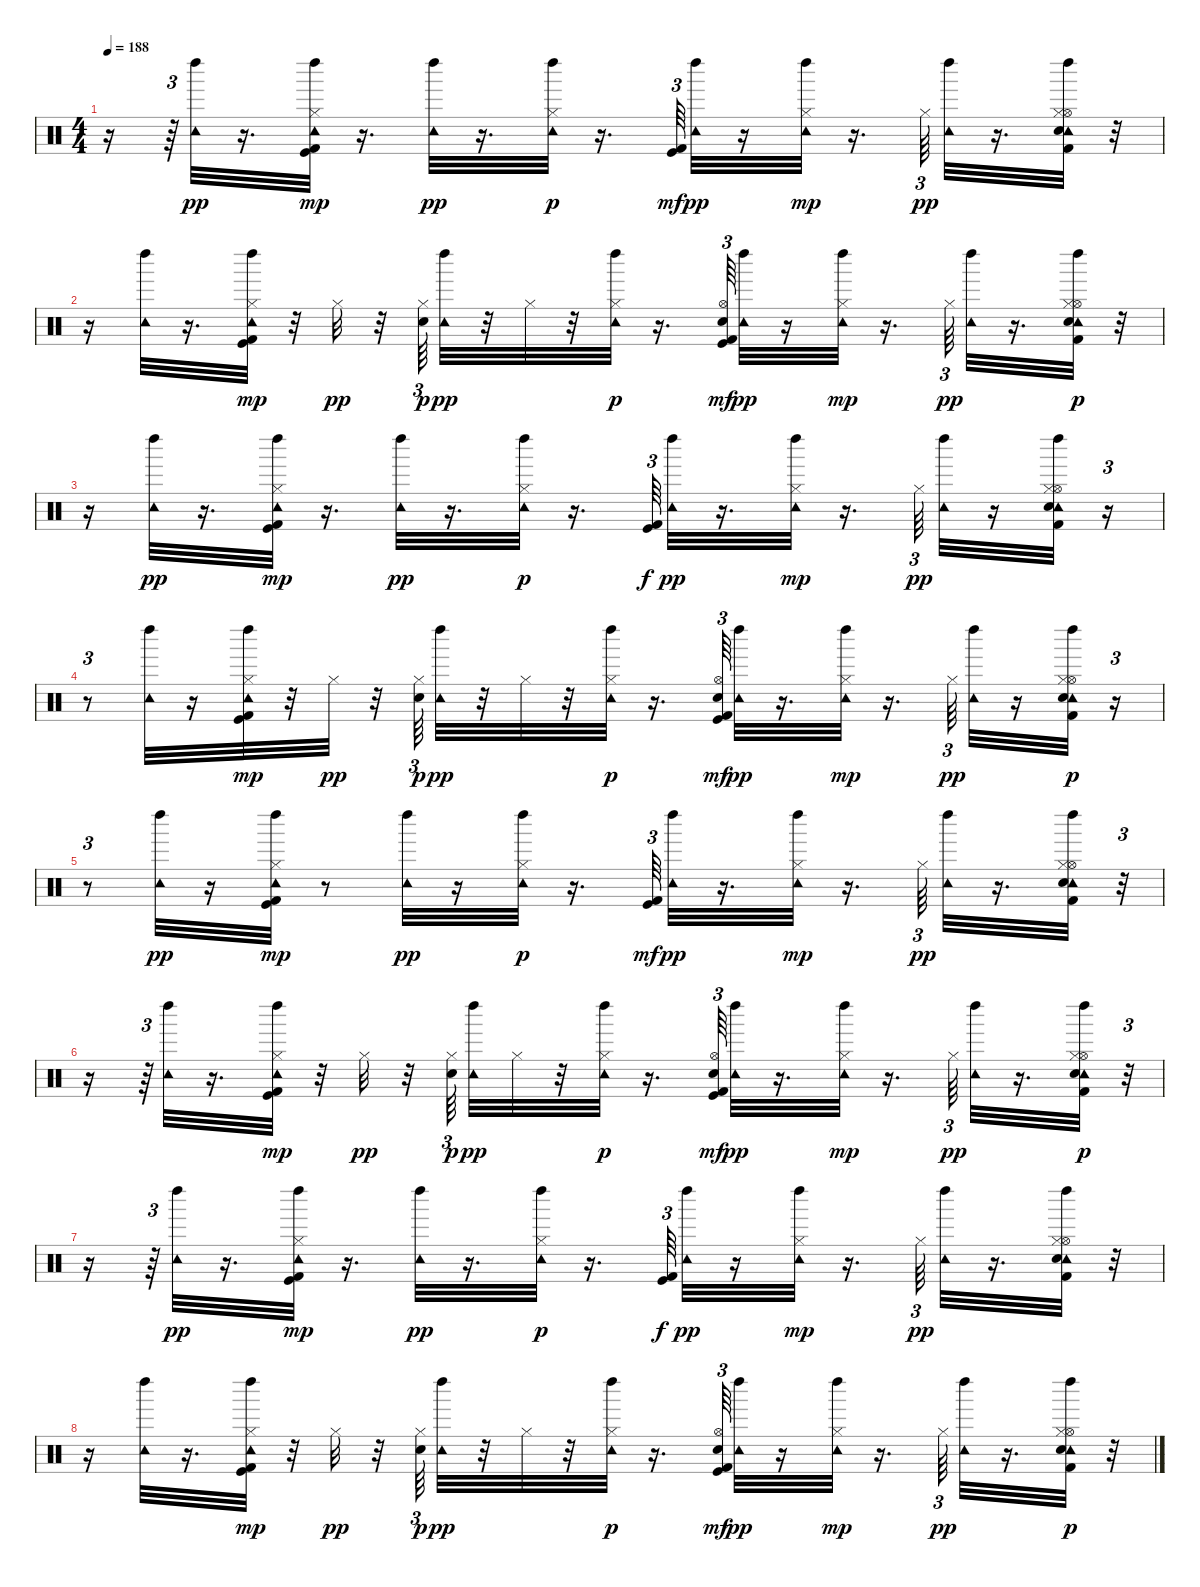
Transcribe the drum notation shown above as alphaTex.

\track "" {instrument percussion}
\staff {score}
\articulation defaults
\ts (4 4)
\tempo 188
\clef neutral
\ks c
r.16{dy p} r.64{tu (3 2)} ("Tambourine (hit)" "Left Maraca (hit)").32{dy pp} r.16{d} ("Kick (hit) 2" "Hi-Hat (closed)" "Tambourine (hit)" "Left Maraca (hit)" "Kick (hit)").32{dy mp} r.16{d} ("Tambourine (hit)" "Left Maraca (hit)").32{dy pp} r.16{d} ("Hi-Hat (closed)" "Tambourine (hit)" "Left Maraca (hit)").32{dy p} r.16{d} ("Kick (hit) 2" "Kick (hit)").64{tu (3 2) dy mf} ("Tambourine (hit)" "Left Maraca (hit)").32{dy pp} r.16 ("Hi-Hat (closed)" "Tambourine (hit)" "Left Maraca (hit)").32{dy mp} r.16{d} "Hi-Hat (closed)".64{tu (3 2) dy pp} ("Tambourine (hit)" "Left Maraca (hit)").32 r.16{d} ("Kick (hit) 2" "Hi-Hat (open)" "Tambourine (hit)" "Left Maraca (hit)" "Electric Snare (hit)" "Hi-Hat (closed)").32 r.32 |
r.16 ("Tambourine (hit)" "Left Maraca (hit)").32 r.16{d} ("Kick (hit) 2" "Hi-Hat (closed)" "Tambourine (hit)" "Left Maraca (hit)" "Kick (hit)").32{dy mp} r.32 "Hi-Hat (closed)".32{dy pp} r.32 ("Electric Snare (hit)" "Hi-Hat (closed)").64{tu (3 2) dy p} ("Tambourine (hit)" "Left Maraca (hit)").32{dy pp} r.32 "Hi-Hat (closed)".32 r.32 ("Hi-Hat (closed)" "Tambourine (hit)" "Left Maraca (hit)").32{dy p} r.16{d} ("Kick (hit) 2" "Hi-Hat (open)" "Electric Snare (hit)" "Kick (hit)").64{tu (3 2) dy mf} ("Tambourine (hit)" "Left Maraca (hit)").32{dy pp} r.16 ("Hi-Hat (closed)" "Tambourine (hit)" "Left Maraca (hit)").32{dy mp} r.16{d} "Hi-Hat (closed)".64{tu (3 2) dy pp} ("Tambourine (hit)" "Left Maraca (hit)").32 r.16{d} ("Kick (hit) 2" "Hi-Hat (open)" "Tambourine (hit)" "Left Maraca (hit)" "Electric Snare (hit)" "Hi-Hat (closed)").32{dy p} r.32 |
r.16 ("Tambourine (hit)" "Left Maraca (hit)").32{dy pp} r.16{d} ("Kick (hit) 2" "Hi-Hat (closed)" "Tambourine (hit)" "Left Maraca (hit)" "Kick (hit)").32{dy mp} r.16{d} ("Tambourine (hit)" "Left Maraca (hit)").32{dy pp} r.16{d} ("Hi-Hat (closed)" "Tambourine (hit)" "Left Maraca (hit)").32{dy p} r.16{d} ("Kick (hit) 2" "Kick (hit)").64{tu (3 2) dy f} ("Tambourine (hit)" "Left Maraca (hit)").32{dy pp} r.16{d} ("Hi-Hat (closed)" "Tambourine (hit)" "Left Maraca (hit)").32{dy mp} r.16{d} "Hi-Hat (closed)".64{tu (3 2) dy pp} ("Tambourine (hit)" "Left Maraca (hit)").32 r.16 ("Kick (hit) 2" "Hi-Hat (open)" "Tambourine (hit)" "Left Maraca (hit)" "Electric Snare (hit)" "Hi-Hat (closed)").32 r.16{tu (3 2)} |
r.8{tu (3 2)} ("Tambourine (hit)" "Left Maraca (hit)").32 r.16 ("Kick (hit) 2" "Hi-Hat (closed)" "Tambourine (hit)" "Left Maraca (hit)" "Kick (hit)").32{dy mp} r.32 "Hi-Hat (closed)".32{dy pp} r.32 ("Electric Snare (hit)" "Hi-Hat (closed)").64{tu (3 2) dy p} ("Tambourine (hit)" "Left Maraca (hit)").32{dy pp} r.32 "Hi-Hat (closed)".32 r.32 ("Hi-Hat (closed)" "Tambourine (hit)" "Left Maraca (hit)").32{dy p} r.16{d} ("Kick (hit) 2" "Hi-Hat (open)" "Electric Snare (hit)" "Kick (hit)").64{tu (3 2) dy mf} ("Tambourine (hit)" "Left Maraca (hit)").32{dy pp} r.16{d} ("Hi-Hat (closed)" "Tambourine (hit)" "Left Maraca (hit)").32{dy mp} r.16{d} "Hi-Hat (closed)".64{tu (3 2) dy pp} ("Tambourine (hit)" "Left Maraca (hit)").32 r.16 ("Kick (hit) 2" "Hi-Hat (open)" "Tambourine (hit)" "Left Maraca (hit)" "Electric Snare (hit)" "Hi-Hat (closed)").32{dy p} r.16{tu (3 2)} |
r.8{tu (3 2)} ("Tambourine (hit)" "Left Maraca (hit)").32{dy pp} r.16 ("Kick (hit) 2" "Hi-Hat (closed)" "Tambourine (hit)" "Left Maraca (hit)" "Kick (hit)").32{dy mp} r.8 ("Tambourine (hit)" "Left Maraca (hit)").32{dy pp} r.16 ("Hi-Hat (closed)" "Tambourine (hit)" "Left Maraca (hit)").32{dy p} r.16{d} ("Kick (hit) 2" "Kick (hit)").64{tu (3 2) dy mf} ("Tambourine (hit)" "Left Maraca (hit)").32{dy pp} r.16{d} ("Hi-Hat (closed)" "Tambourine (hit)" "Left Maraca (hit)").32{dy mp} r.16{d} "Hi-Hat (closed)".64{tu (3 2) dy pp} ("Tambourine (hit)" "Left Maraca (hit)").32 r.16{d} ("Kick (hit) 2" "Hi-Hat (open)" "Tambourine (hit)" "Left Maraca (hit)" "Electric Snare (hit)" "Hi-Hat (closed)").32 r.32{tu (3 2)} |
r.16 r.64{tu (3 2)} ("Tambourine (hit)" "Left Maraca (hit)").32 r.16{d} ("Kick (hit) 2" "Hi-Hat (closed)" "Tambourine (hit)" "Left Maraca (hit)" "Kick (hit)").32{dy mp} r.32 "Hi-Hat (closed)".32{dy pp} r.32 ("Electric Snare (hit)" "Hi-Hat (closed)").64{tu (3 2) dy p beam splitsecondary} ("Tambourine (hit)" "Left Maraca (hit)").32{dy pp} "Hi-Hat (closed)".32 r.32 ("Hi-Hat (closed)" "Tambourine (hit)" "Left Maraca (hit)").32{dy p} r.16{d} ("Kick (hit) 2" "Hi-Hat (open)" "Electric Snare (hit)" "Kick (hit)").64{tu (3 2) dy mf} ("Tambourine (hit)" "Left Maraca (hit)").32{dy pp} r.16{d} ("Hi-Hat (closed)" "Tambourine (hit)" "Left Maraca (hit)").32{dy mp} r.16{d} "Hi-Hat (closed)".64{tu (3 2) dy pp} ("Tambourine (hit)" "Left Maraca (hit)").32 r.16{d} ("Kick (hit) 2" "Hi-Hat (open)" "Tambourine (hit)" "Left Maraca (hit)" "Electric Snare (hit)" "Hi-Hat (closed)").32{dy p} r.32{tu (3 2)} |
r.16 r.64{tu (3 2)} ("Tambourine (hit)" "Left Maraca (hit)").32{dy pp} r.16{d} ("Kick (hit) 2" "Hi-Hat (closed)" "Tambourine (hit)" "Left Maraca (hit)" "Kick (hit)").32{dy mp} r.16{d} ("Tambourine (hit)" "Left Maraca (hit)").32{dy pp} r.16{d} ("Hi-Hat (closed)" "Tambourine (hit)" "Left Maraca (hit)").32{dy p} r.16{d} ("Kick (hit) 2" "Kick (hit)").64{tu (3 2) dy f} ("Tambourine (hit)" "Left Maraca (hit)").32{dy pp} r.16 ("Hi-Hat (closed)" "Tambourine (hit)" "Left Maraca (hit)").32{dy mp} r.16{d} "Hi-Hat (closed)".64{tu (3 2) dy pp} ("Tambourine (hit)" "Left Maraca (hit)").32 r.16{d} ("Kick (hit) 2" "Hi-Hat (open)" "Tambourine (hit)" "Left Maraca (hit)" "Electric Snare (hit)" "Hi-Hat (closed)").32 r.32 |
r.16 ("Tambourine (hit)" "Left Maraca (hit)").32 r.16{d} ("Kick (hit) 2" "Hi-Hat (closed)" "Tambourine (hit)" "Left Maraca (hit)" "Kick (hit)").32{dy mp} r.32 "Hi-Hat (closed)".32{dy pp} r.32 ("Electric Snare (hit)" "Hi-Hat (closed)").64{tu (3 2) dy p} ("Tambourine (hit)" "Left Maraca (hit)").32{dy pp} r.32 "Hi-Hat (closed)".32 r.32 ("Hi-Hat (closed)" "Tambourine (hit)" "Left Maraca (hit)").32{dy p} r.16{d} ("Kick (hit) 2" "Hi-Hat (open)" "Electric Snare (hit)" "Kick (hit)").64{tu (3 2) dy mf} ("Tambourine (hit)" "Left Maraca (hit)").32{dy pp} r.16 ("Hi-Hat (closed)" "Tambourine (hit)" "Left Maraca (hit)").32{dy mp} r.16{d} "Hi-Hat (closed)".64{tu (3 2) dy pp} ("Tambourine (hit)" "Left Maraca (hit)").32 r.16{d} ("Kick (hit) 2" "Hi-Hat (open)" "Tambourine (hit)" "Left Maraca (hit)" "Electric Snare (hit)" "Hi-Hat (closed)").32{dy p} r.32
